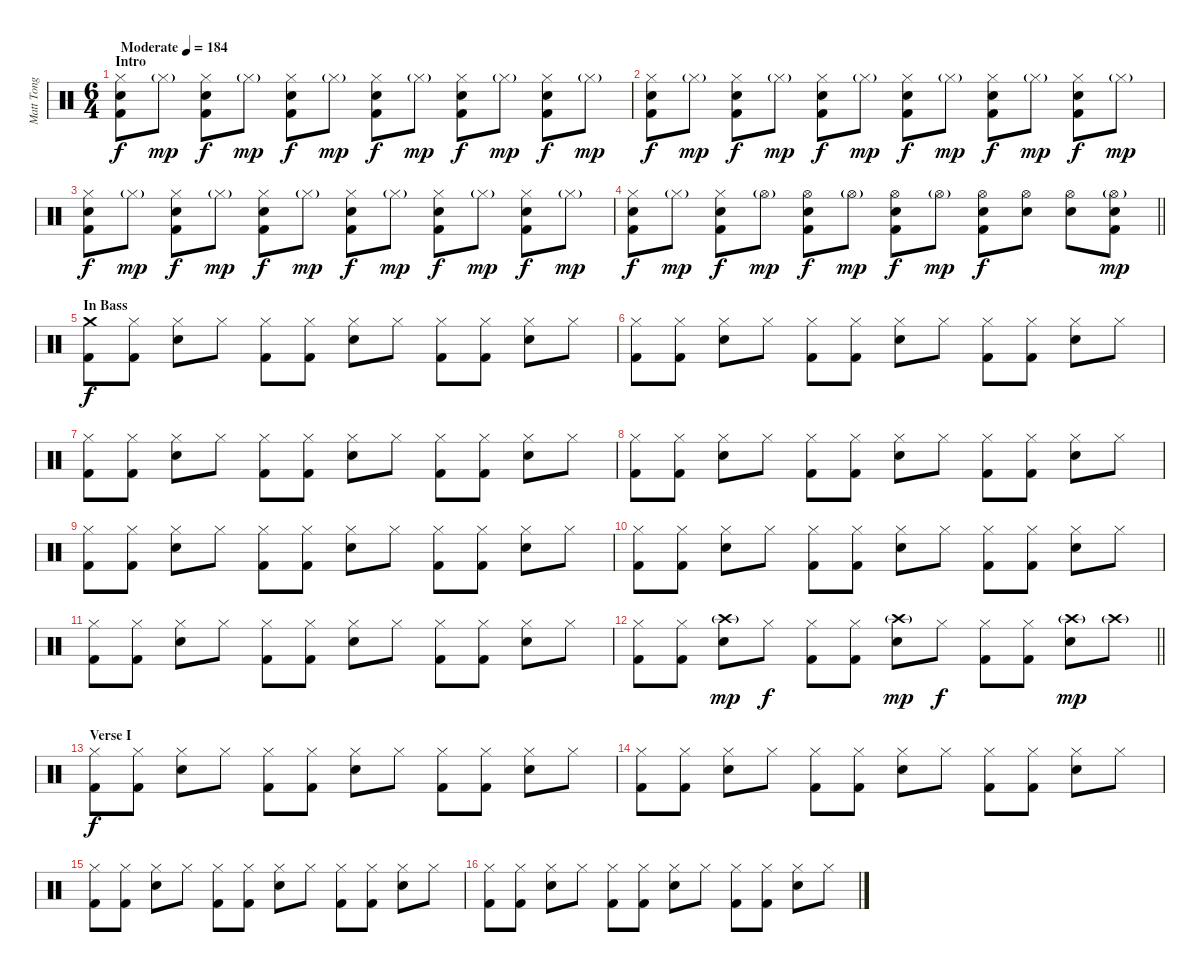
\track ("Matt Tong" "Matt Tong") {instrument percussion}
\staff {score}
\articulation defaults
\ts (6 4)
\section ("" "Intro")
\tempo (184 "Moderate")
\clef neutral
\ks c
("Hi-Hat (closed)" "Electric Snare (hit)" "Kick (hit) 2").8{dy f} "Hi-Hat (closed)"{g}.8{dy mp} ("Hi-Hat (closed)" "Electric Snare (hit)" "Kick (hit) 2").8{dy f} "Hi-Hat (closed)"{g}.8{dy mp} ("Hi-Hat (closed)" "Electric Snare (hit)" "Kick (hit) 2").8{dy f} "Hi-Hat (closed)"{g}.8{dy mp} ("Hi-Hat (closed)" "Electric Snare (hit)" "Kick (hit) 2").8{dy f} "Hi-Hat (closed)"{g}.8{dy mp} ("Hi-Hat (closed)" "Electric Snare (hit)" "Kick (hit) 2").8{dy f} "Hi-Hat (closed)"{g}.8{dy mp} ("Hi-Hat (closed)" "Electric Snare (hit)" "Kick (hit) 2").8{dy f} "Hi-Hat (closed)"{g}.8{dy mp} |
("Hi-Hat (closed)" "Electric Snare (hit)" "Kick (hit) 2").8{dy f} "Hi-Hat (closed)"{g}.8{dy mp} ("Hi-Hat (closed)" "Electric Snare (hit)" "Kick (hit) 2").8{dy f} "Hi-Hat (closed)"{g}.8{dy mp} ("Hi-Hat (closed)" "Electric Snare (hit)" "Kick (hit) 2").8{dy f} "Hi-Hat (closed)"{g}.8{dy mp} ("Hi-Hat (closed)" "Electric Snare (hit)" "Kick (hit) 2").8{dy f} "Hi-Hat (closed)"{g}.8{dy mp} ("Hi-Hat (closed)" "Electric Snare (hit)" "Kick (hit) 2").8{dy f} "Hi-Hat (closed)"{g}.8{dy mp} ("Hi-Hat (closed)" "Electric Snare (hit)" "Kick (hit) 2").8{dy f} "Hi-Hat (closed)"{g}.8{dy mp} |
("Hi-Hat (closed)" "Electric Snare (hit)" "Kick (hit) 2").8{dy f} "Hi-Hat (closed)"{g}.8{dy mp} ("Hi-Hat (closed)" "Electric Snare (hit)" "Kick (hit) 2").8{dy f} "Hi-Hat (closed)"{g}.8{dy mp} ("Hi-Hat (closed)" "Electric Snare (hit)" "Kick (hit) 2").8{dy f} "Hi-Hat (closed)"{g}.8{dy mp} ("Hi-Hat (closed)" "Electric Snare (hit)" "Kick (hit) 2").8{dy f} "Hi-Hat (closed)"{g}.8{dy mp} ("Hi-Hat (closed)" "Electric Snare (hit)" "Kick (hit) 2").8{dy f} "Hi-Hat (closed)"{g}.8{dy mp} ("Hi-Hat (closed)" "Electric Snare (hit)" "Kick (hit) 2").8{dy f} "Hi-Hat (closed)"{g}.8{dy mp} |
\barLineRight lightlight
("Hi-Hat (closed)" "Electric Snare (hit)" "Kick (hit) 2").8{dy f} "Hi-Hat (closed)"{g}.8{dy mp} ("Hi-Hat (closed)" "Electric Snare (hit)" "Kick (hit) 2").8{dy f} "Hi-Hat (open)"{g}.8{dy mp} ("Hi-Hat (open)" "Electric Snare (hit)" "Kick (hit) 2").8{dy f} "Hi-Hat (open)"{g}.8{dy mp} ("Hi-Hat (open)" "Electric Snare (hit)" "Kick (hit) 2").8{dy f} "Hi-Hat (open)"{g}.8{dy mp} ("Hi-Hat (open)" "Electric Snare (hit)" "Kick (hit) 2").8{dy f} ("Hi-Hat (open)" "Electric Snare (hit)").8 ("Hi-Hat (open)" "Electric Snare (hit)").8 ("Hi-Hat (open)"{g} "Electric Snare (hit)" "Kick (hit) 2").8{dy mp} |
\section ("" "In Bass")
("Crash medium (hit)" "Kick (hit) 2").8{dy f} ("Hi-Hat (closed)" "Kick (hit) 2").8 ("Hi-Hat (closed)" "Electric Snare (hit)").8 "Hi-Hat (closed)".8 ("Hi-Hat (closed)" "Kick (hit) 2").8 ("Hi-Hat (closed)" "Kick (hit) 2").8 ("Hi-Hat (closed)" "Electric Snare (hit)").8 "Hi-Hat (closed)".8 ("Hi-Hat (closed)" "Kick (hit) 2").8 ("Hi-Hat (closed)" "Kick (hit) 2").8 ("Hi-Hat (closed)" "Electric Snare (hit)").8 "Hi-Hat (closed)".8 |
("Hi-Hat (closed)" "Kick (hit) 2").8 ("Hi-Hat (closed)" "Kick (hit) 2").8 ("Hi-Hat (closed)" "Electric Snare (hit)").8 "Hi-Hat (closed)".8 ("Hi-Hat (closed)" "Kick (hit) 2").8 ("Hi-Hat (closed)" "Kick (hit) 2").8 ("Hi-Hat (closed)" "Electric Snare (hit)").8 "Hi-Hat (closed)".8 ("Hi-Hat (closed)" "Kick (hit) 2").8 ("Hi-Hat (closed)" "Kick (hit) 2").8 ("Hi-Hat (closed)" "Electric Snare (hit)").8 "Hi-Hat (closed)".8 |
("Hi-Hat (closed)" "Kick (hit) 2").8 ("Hi-Hat (closed)" "Kick (hit) 2").8 ("Hi-Hat (closed)" "Electric Snare (hit)").8 "Hi-Hat (closed)".8 ("Hi-Hat (closed)" "Kick (hit) 2").8 ("Hi-Hat (closed)" "Kick (hit) 2").8 ("Hi-Hat (closed)" "Electric Snare (hit)").8 "Hi-Hat (closed)".8 ("Hi-Hat (closed)" "Kick (hit) 2").8 ("Hi-Hat (closed)" "Kick (hit) 2").8 ("Hi-Hat (closed)" "Electric Snare (hit)").8 "Hi-Hat (closed)".8 |
("Hi-Hat (closed)" "Kick (hit) 2").8 ("Hi-Hat (closed)" "Kick (hit) 2").8 ("Hi-Hat (closed)" "Electric Snare (hit)").8 "Hi-Hat (closed)".8 ("Hi-Hat (closed)" "Kick (hit) 2").8 ("Hi-Hat (closed)" "Kick (hit) 2").8 ("Hi-Hat (closed)" "Electric Snare (hit)").8 "Hi-Hat (closed)".8 ("Hi-Hat (closed)" "Kick (hit) 2").8 ("Hi-Hat (closed)" "Kick (hit) 2").8 ("Hi-Hat (closed)" "Electric Snare (hit)").8 "Hi-Hat (closed)".8 |
("Hi-Hat (closed)" "Kick (hit) 2").8 ("Hi-Hat (closed)" "Kick (hit) 2").8 ("Hi-Hat (closed)" "Electric Snare (hit)").8 "Hi-Hat (closed)".8 ("Hi-Hat (closed)" "Kick (hit) 2").8 ("Hi-Hat (closed)" "Kick (hit) 2").8 ("Hi-Hat (closed)" "Electric Snare (hit)").8 "Hi-Hat (closed)".8 ("Hi-Hat (closed)" "Kick (hit) 2").8 ("Hi-Hat (closed)" "Kick (hit) 2").8 ("Hi-Hat (closed)" "Electric Snare (hit)").8 "Hi-Hat (closed)".8 |
("Hi-Hat (closed)" "Kick (hit) 2").8 ("Hi-Hat (closed)" "Kick (hit) 2").8 ("Hi-Hat (closed)" "Electric Snare (hit)").8 "Hi-Hat (closed)".8 ("Hi-Hat (closed)" "Kick (hit) 2").8 ("Hi-Hat (closed)" "Kick (hit) 2").8 ("Hi-Hat (closed)" "Electric Snare (hit)").8 "Hi-Hat (closed)".8 ("Hi-Hat (closed)" "Kick (hit) 2").8 ("Hi-Hat (closed)" "Kick (hit) 2").8 ("Hi-Hat (closed)" "Electric Snare (hit)").8 "Hi-Hat (closed)".8 |
("Hi-Hat (closed)" "Kick (hit) 2").8 ("Hi-Hat (closed)" "Kick (hit) 2").8 ("Hi-Hat (closed)" "Electric Snare (hit)").8 "Hi-Hat (closed)".8 ("Hi-Hat (closed)" "Kick (hit) 2").8 ("Hi-Hat (closed)" "Kick (hit) 2").8 ("Hi-Hat (closed)" "Electric Snare (hit)").8 "Hi-Hat (closed)".8 ("Hi-Hat (closed)" "Kick (hit) 2").8 ("Hi-Hat (closed)" "Kick (hit) 2").8 ("Hi-Hat (closed)" "Electric Snare (hit)").8 "Hi-Hat (closed)".8 |
\barLineRight lightlight
("Hi-Hat (closed)" "Kick (hit) 2").8 ("Hi-Hat (closed)" "Kick (hit) 2").8 ("Crash high (hit)"{g} "Electric Snare (hit)").8{dy mp} "Hi-Hat (closed)".8{dy f} ("Hi-Hat (closed)" "Kick (hit) 2").8 ("Hi-Hat (closed)" "Kick (hit) 2").8 ("Crash high (hit)"{g} "Electric Snare (hit)").8{dy mp} "Hi-Hat (closed)".8{dy f} ("Hi-Hat (closed)" "Kick (hit) 2").8 ("Hi-Hat (closed)" "Kick (hit) 2").8 ("Crash high (hit)"{g} "Electric Snare (hit)").8{dy mp} "Crash high (hit)"{g}.8 |
\section ("" "Verse I")
("Hi-Hat (closed)" "Kick (hit) 2").8{dy f} ("Hi-Hat (closed)" "Kick (hit) 2").8 ("Hi-Hat (closed)" "Electric Snare (hit)").8 "Hi-Hat (closed)".8 ("Hi-Hat (closed)" "Kick (hit) 2").8 ("Hi-Hat (closed)" "Kick (hit) 2").8 ("Hi-Hat (closed)" "Electric Snare (hit)").8 "Hi-Hat (closed)".8 ("Hi-Hat (closed)" "Kick (hit) 2").8 ("Hi-Hat (closed)" "Kick (hit) 2").8 ("Hi-Hat (closed)" "Electric Snare (hit)").8 "Hi-Hat (closed)".8 |
("Hi-Hat (closed)" "Kick (hit) 2").8 ("Hi-Hat (closed)" "Kick (hit) 2").8 ("Hi-Hat (closed)" "Electric Snare (hit)").8 "Hi-Hat (closed)".8 ("Hi-Hat (closed)" "Kick (hit) 2").8 ("Hi-Hat (closed)" "Kick (hit) 2").8 ("Hi-Hat (closed)" "Electric Snare (hit)").8 "Hi-Hat (closed)".8 ("Hi-Hat (closed)" "Kick (hit) 2").8 ("Hi-Hat (closed)" "Kick (hit) 2").8 ("Hi-Hat (closed)" "Electric Snare (hit)").8 "Hi-Hat (closed)".8 |
("Hi-Hat (closed)" "Kick (hit) 2").8 ("Hi-Hat (closed)" "Kick (hit) 2").8 ("Hi-Hat (closed)" "Electric Snare (hit)").8 "Hi-Hat (closed)".8 ("Hi-Hat (closed)" "Kick (hit) 2").8 ("Hi-Hat (closed)" "Kick (hit) 2").8 ("Hi-Hat (closed)" "Electric Snare (hit)").8 "Hi-Hat (closed)".8 ("Hi-Hat (closed)" "Kick (hit) 2").8 ("Hi-Hat (closed)" "Kick (hit) 2").8 ("Hi-Hat (closed)" "Electric Snare (hit)").8 "Hi-Hat (closed)".8 |
("Hi-Hat (closed)" "Kick (hit) 2").8 ("Hi-Hat (closed)" "Kick (hit) 2").8 ("Hi-Hat (closed)" "Electric Snare (hit)").8 "Hi-Hat (closed)".8 ("Hi-Hat (closed)" "Kick (hit) 2").8 ("Hi-Hat (closed)" "Kick (hit) 2").8 ("Hi-Hat (closed)" "Electric Snare (hit)").8 "Hi-Hat (closed)".8 ("Hi-Hat (closed)" "Kick (hit) 2").8 ("Hi-Hat (closed)" "Kick (hit) 2").8 ("Hi-Hat (closed)" "Electric Snare (hit)").8 "Hi-Hat (closed)".8
